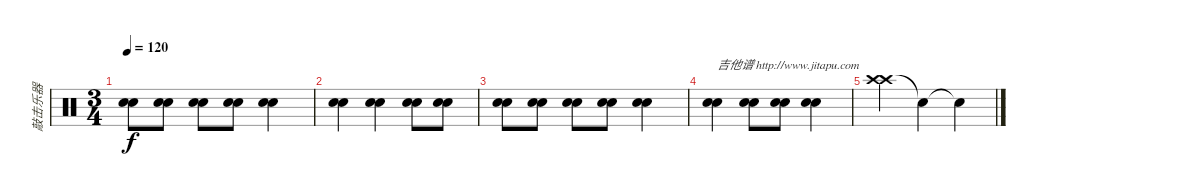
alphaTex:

\track ("敲击乐器" "敲击乐器") {instrument percussion}
\staff {score}
\articulation defaults
\ts (3 4)
\tempo 120
\clef neutral
\ks c
("Snare (hit) 2" "Snare (hit) 2").8{dy f} ("Snare (hit) 2" "Snare (hit) 2").8 ("Snare (hit) 2" "Snare (hit) 2").8 ("Snare (hit) 2" "Snare (hit) 2").8 ("Electric Snare (hit)" "Electric Snare (hit)").4 |
("Snare (hit) 2" "Snare (hit) 2").4 ("Snare (hit) 2" "Snare (hit) 2").4 ("Snare (hit) 2" "Snare (hit) 2").8 ("Snare (hit) 2" "Snare (hit) 2").8 |
("Snare (hit) 2" "Snare (hit) 2").8 ("Snare (hit) 2" "Snare (hit) 2").8 ("Snare (hit) 2" "Snare (hit) 2").8 ("Snare (hit) 2" "Snare (hit) 2").8 ("Electric Snare (hit)" "Electric Snare (hit)").4 |
("Snare (hit) 2" "Snare (hit) 2").4{txt "吉他谱 http://www.jitapu.com"} ("Electric Snare (hit)" "Electric Snare (hit)").8 ("Electric Snare (hit)" "Electric Snare (hit)").8 ("Electric Snare (hit)" "Electric Snare (hit)").4 |
("Crash high (hit)" "Crash high (hit)").4 "Snare (hit)"{t}.4 "Snare (hit)"{t}.4
